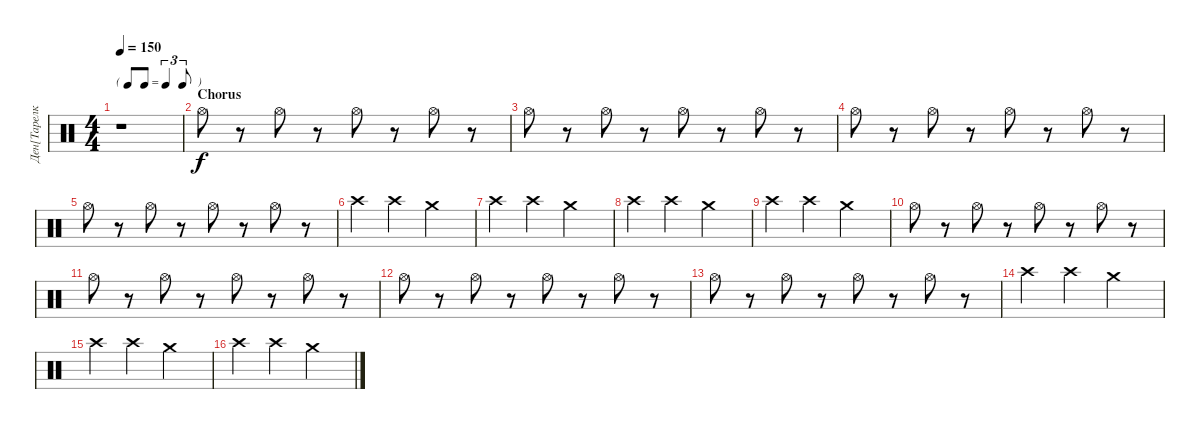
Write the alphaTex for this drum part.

\track ("Ден[Тарелки]" "Ден[Тарелк") {instrument percussion}
\staff {score}
\articulation defaults
\ts (4 4)
\tf triplet8th
\tempo 150
\clef neutral
\ks c
r.1{dy f} |
\section ("" "Chorus")
"Hi-Hat (open)".8 r.8 "Hi-Hat (open)".8 r.8 "Hi-Hat (open)".8 r.8 "Hi-Hat (open)".8 r.8 |
"Hi-Hat (open)".8 r.8 "Hi-Hat (open)".8 r.8 "Hi-Hat (open)".8 r.8 "Hi-Hat (open)".8 r.8 |
"Hi-Hat (open)".8 r.8 "Hi-Hat (open)".8 r.8 "Hi-Hat (open)".8 r.8 "Hi-Hat (open)".8 r.8 |
"Hi-Hat (open)".8 r.8 "Hi-Hat (open)".8 r.8 "Hi-Hat (open)".8 r.8 "Hi-Hat (open)".8 r.8 |
"Crash high (hit)".4 "Crash high (hit)".4 "Crash medium (hit)".2 |
"Crash high (hit)".4 "Crash high (hit)".4 "Crash medium (hit)".2 |
"Crash high (hit)".4 "Crash high (hit)".4 "Crash medium (hit)".2 |
"Crash high (hit)".4 "Crash high (hit)".4 "Crash medium (hit)".2 |
"Hi-Hat (open)".8 r.8 "Hi-Hat (open)".8 r.8 "Hi-Hat (open)".8 r.8 "Hi-Hat (open)".8 r.8 |
"Hi-Hat (open)".8 r.8 "Hi-Hat (open)".8 r.8 "Hi-Hat (open)".8 r.8 "Hi-Hat (open)".8 r.8 |
"Hi-Hat (open)".8 r.8 "Hi-Hat (open)".8 r.8 "Hi-Hat (open)".8 r.8 "Hi-Hat (open)".8 r.8 |
"Hi-Hat (open)".8 r.8 "Hi-Hat (open)".8 r.8 "Hi-Hat (open)".8 r.8 "Hi-Hat (open)".8 r.8 |
"Crash high (hit)".4 "Crash high (hit)".4 "Crash medium (hit)".2 |
"Crash high (hit)".4 "Crash high (hit)".4 "Crash medium (hit)".2 |
"Crash high (hit)".4 "Crash high (hit)".4 "Crash medium (hit)".2
